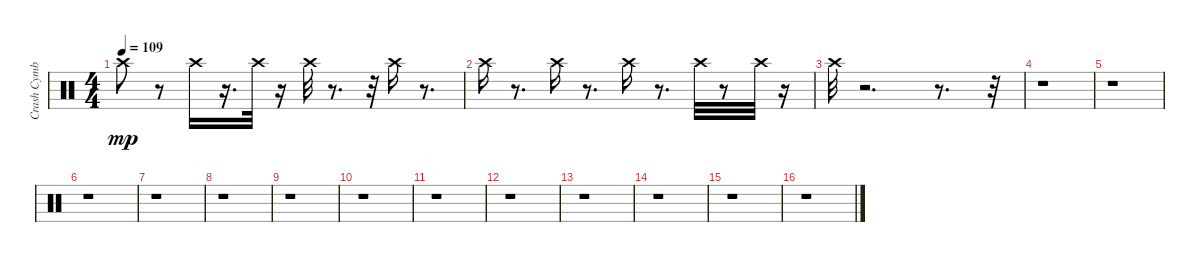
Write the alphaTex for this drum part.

\track ("Crash Cymbal    " "Crash Cymb") {instrument percussion}
\staff {score}
\articulation defaults
\ts (4 4)
\tempo 109
\clef neutral
\ks c "Crash high (hit)".8{dy mp}
r.8 "Crash high (hit)".16 r.16{d} "Crash high (hit)".32 r.16 "Crash high (hit)".32 r.8{d} r.32 "Crash high (hit)".16 r.8{d} |
"Crash high (hit)".16 r.8{d} "Crash high (hit)".16 r.8{d} "Crash high (hit)".16 r.8{d} "Crash high (hit)".32 r.8 "Crash high (hit)".32 r.16 |
"Crash high (hit)".32 r.2{d} r.8{d} r.32 |
r.1 |
r.1 |
r.1 |
r.1 |
r.1 |
r.1 |
r.1 |
r.1 |
r.1 |
r.1 |
r.1 |
r.1 |
r.1
